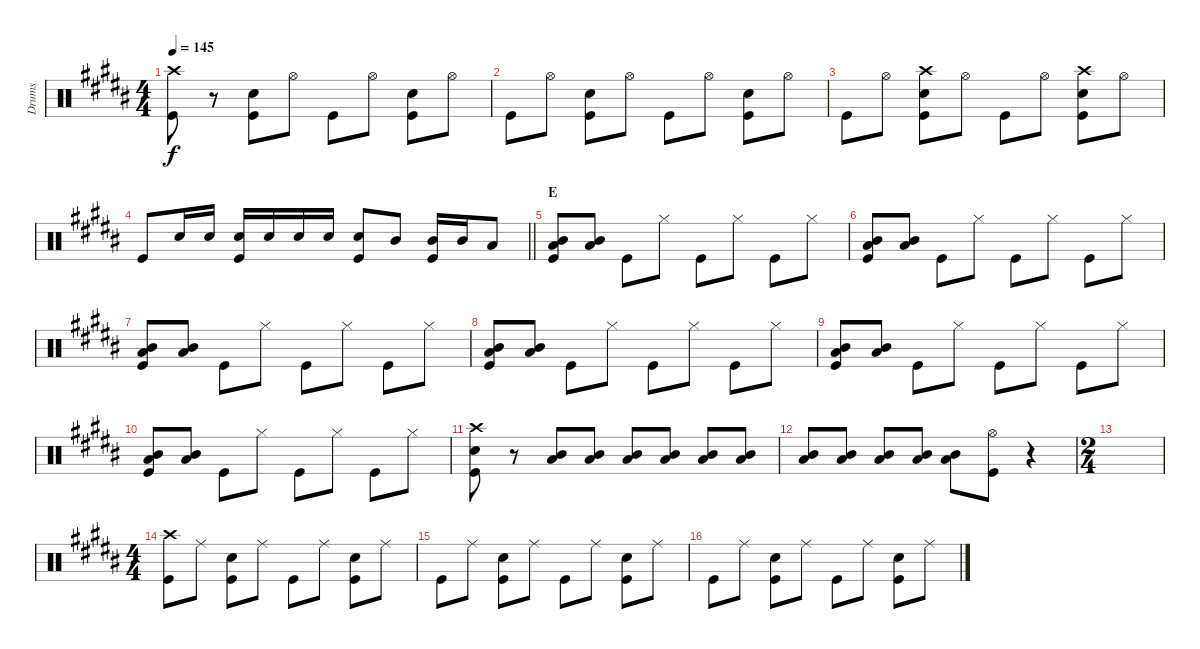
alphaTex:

\track ("Drums" "Drums") {instrument percussion}
\staff {score}
\articulation defaults
\ts (4 4)
\tempo 145
\clef neutral
\ks b
("Crash high (hit)" "Kick (hit)").8{dy f} r.8 ("Snare (hit) 2" "Kick (hit)").8 "Hi-Hat (open)".8 "Kick (hit)".8 "Hi-Hat (open)".8 ("Snare (hit) 2" "Kick (hit)").8 "Hi-Hat (open)".8 |
"Kick (hit)".8 "Hi-Hat (open)".8 ("Snare (hit) 2" "Kick (hit)").8 "Hi-Hat (open)".8 "Kick (hit)".8 "Hi-Hat (open)".8 ("Snare (hit) 2" "Kick (hit)").8 "Hi-Hat (open)".8 |
"Kick (hit)".8 "Hi-Hat (open)".8 ("Crash high (hit)" "Snare (hit) 2" "Kick (hit)").8 "Hi-Hat (open)".8 "Kick (hit)".8 "Hi-Hat (open)".8 ("Crash high (hit)" "Snare (hit) 2" "Kick (hit)").8 "Hi-Hat (open)".8 |
\barLineRight lightlight "Kick (hit)".8 "Snare (hit) 2".16 "Snare (hit) 2".16
("Snare (hit) 2" "Kick (hit)").16 "Snare (hit) 2".16 "Snare (hit) 2".16 "Snare (hit) 2".16 ("Snare (hit) 2" "Kick (hit)").8 "Mid Tom (hit)".8 ("Mid Tom (hit)" "Kick (hit)").16 "Mid Tom (hit)".16 "Low Tom (hit)".8 |
\section ("" "E")
("Mid Tom (hit)" "Low Tom (hit)" "Kick (hit)").8 ("Mid Tom (hit)" "Low Tom (hit)").8 "Kick (hit)".8 "Hi-Hat (closed)".8 "Kick (hit)".8 "Hi-Hat (closed)".8 "Kick (hit)".8 "Hi-Hat (closed)".8 |
("Mid Tom (hit)" "Low Tom (hit)" "Kick (hit)").8 ("Mid Tom (hit)" "Low Tom (hit)").8 "Kick (hit)".8 "Hi-Hat (closed)".8 "Kick (hit)".8 "Hi-Hat (closed)".8 "Kick (hit)".8 "Hi-Hat (closed)".8 |
("Mid Tom (hit)" "Low Tom (hit)" "Kick (hit)").8 ("Mid Tom (hit)" "Low Tom (hit)").8 "Kick (hit)".8 "Hi-Hat (closed)".8 "Kick (hit)".8 "Hi-Hat (closed)".8 "Kick (hit)".8 "Hi-Hat (closed)".8 |
("Mid Tom (hit)" "Low Tom (hit)" "Kick (hit)").8 ("Mid Tom (hit)" "Low Tom (hit)").8 "Kick (hit)".8 "Hi-Hat (closed)".8 "Kick (hit)".8 "Hi-Hat (closed)".8 "Kick (hit)".8 "Hi-Hat (closed)".8 |
("Mid Tom (hit)" "Low Tom (hit)" "Kick (hit)").8 ("Mid Tom (hit)" "Low Tom (hit)").8 "Kick (hit)".8 "Hi-Hat (closed)".8 "Kick (hit)".8 "Hi-Hat (closed)".8 "Kick (hit)".8 "Hi-Hat (closed)".8 |
("Mid Tom (hit)" "Low Tom (hit)" "Kick (hit)").8 ("Mid Tom (hit)" "Low Tom (hit)").8 "Kick (hit)".8 "Hi-Hat (closed)".8 "Kick (hit)".8 "Hi-Hat (closed)".8 "Kick (hit)".8 "Hi-Hat (closed)".8 |
("Crash high (hit)" "Snare (hit) 2" "Kick (hit)").8 r.8 ("Mid Tom (hit)" "Low Tom (hit)").8 ("Mid Tom (hit)" "Low Tom (hit)").8 ("Mid Tom (hit)" "Low Tom (hit)").8 ("Mid Tom (hit)" "Low Tom (hit)").8 ("Mid Tom (hit)" "Low Tom (hit)").8 ("Mid Tom (hit)" "Low Tom (hit)").8 |
("Mid Tom (hit)" "Low Tom (hit)").8 ("Mid Tom (hit)" "Low Tom (hit)").8 ("Mid Tom (hit)" "Low Tom (hit)").8 ("Mid Tom (hit)" "Low Tom (hit)").8 ("Mid Tom (hit)" "Low Tom (hit)").8 ("Hi-Hat (open)" "Kick (hit)").8 r.4 |
\ts (2 4)
|
\ts (4 4)
("Crash high (hit)" "Kick (hit)").8 "Ride (middle)".8 ("Snare (hit) 2" "Kick (hit)").8 "Ride (middle)".8 "Kick (hit)".8 "Ride (middle)".8 ("Snare (hit) 2" "Kick (hit)").8 "Ride (middle)".8 |
"Kick (hit)".8 "Ride (middle)".8 ("Snare (hit) 2" "Kick (hit)").8 "Ride (middle)".8 "Kick (hit)".8 "Ride (middle)".8 ("Snare (hit) 2" "Kick (hit)").8 "Ride (middle)".8 |
"Kick (hit)".8 "Ride (middle)".8 ("Snare (hit) 2" "Kick (hit)").8 "Ride (middle)".8 "Kick (hit)".8 "Ride (middle)".8 ("Snare (hit) 2" "Kick (hit)").8 "Ride (middle)".8
